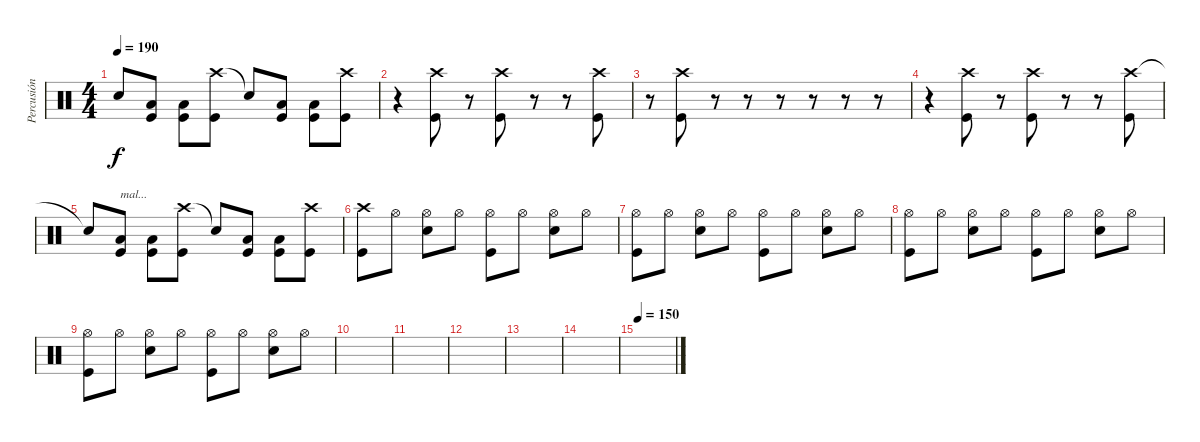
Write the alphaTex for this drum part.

\track ("Percusión" "Percusión") {instrument percussion}
\staff {score}
\articulation defaults
\ts (4 4)
\tempo 190
\clef neutral
\ks c "Snare (hit)"{t}.8{dy f}
("Low Tom (hit)" "Kick (hit)").8 ("Low Tom (hit)" "Kick (hit)").8 ("Crash high (hit)" "Kick (hit)").8 "Snare (hit)"{t}.8 ("Low Tom (hit)" "Kick (hit)").8 ("Low Tom (hit)" "Kick (hit)").8 ("Crash high (hit)" "Kick (hit)").8 |
r.4 ("Crash high (hit)" "Kick (hit)").8 r.8 ("Crash high (hit)" "Kick (hit)").8 r.8 r.8 ("Crash high (hit)" "Kick (hit)").8 |
r.8 ("Crash high (hit)" "Kick (hit)").8 r.8 r.8 r.8 r.8 r.8 r.8 |
r.4 ("Crash high (hit)" "Kick (hit)").8 r.8 ("Crash high (hit)" "Kick (hit)").8 r.8 r.8 ("Crash high (hit)" "Kick (hit)").8 |
"Snare (hit)"{t}.8 ("Low Tom (hit)" "Kick (hit)").8{txt "mal..."} ("Low Tom (hit)" "Kick (hit)").8 ("Crash high (hit)" "Kick (hit)").8 "Snare (hit)"{t}.8 ("Low Tom (hit)" "Kick (hit)").8 ("Low Tom (hit)" "Kick (hit)").8 ("Crash high (hit)" "Kick (hit)").8 |
("Crash high (hit)" "Kick (hit)").8 "Hi-Hat (open)".8 ("Hi-Hat (open)" "Snare (hit) 2").8 "Hi-Hat (open)".8 ("Hi-Hat (open)" "Kick (hit)").8 "Hi-Hat (open)".8 ("Hi-Hat (open)" "Snare (hit) 2").8 "Hi-Hat (open)".8 |
("Hi-Hat (open)" "Kick (hit)").8 "Hi-Hat (open)".8 ("Hi-Hat (open)" "Snare (hit) 2").8 "Hi-Hat (open)".8 ("Hi-Hat (open)" "Kick (hit)").8 "Hi-Hat (open)".8 ("Hi-Hat (open)" "Snare (hit) 2").8 "Hi-Hat (open)".8 |
("Hi-Hat (open)" "Kick (hit)").8 "Hi-Hat (open)".8 ("Hi-Hat (open)" "Snare (hit) 2").8 "Hi-Hat (open)".8 ("Hi-Hat (open)" "Kick (hit)").8 "Hi-Hat (open)".8 ("Hi-Hat (open)" "Snare (hit) 2").8 "Hi-Hat (open)".8 |
("Hi-Hat (open)" "Kick (hit)").8 "Hi-Hat (open)".8 ("Hi-Hat (open)" "Snare (hit) 2").8 "Hi-Hat (open)".8 ("Hi-Hat (open)" "Kick (hit)").8 "Hi-Hat (open)".8 ("Hi-Hat (open)" "Snare (hit) 2").8 "Hi-Hat (open)".8 |
|
|
|
|
|
\tempo 150
